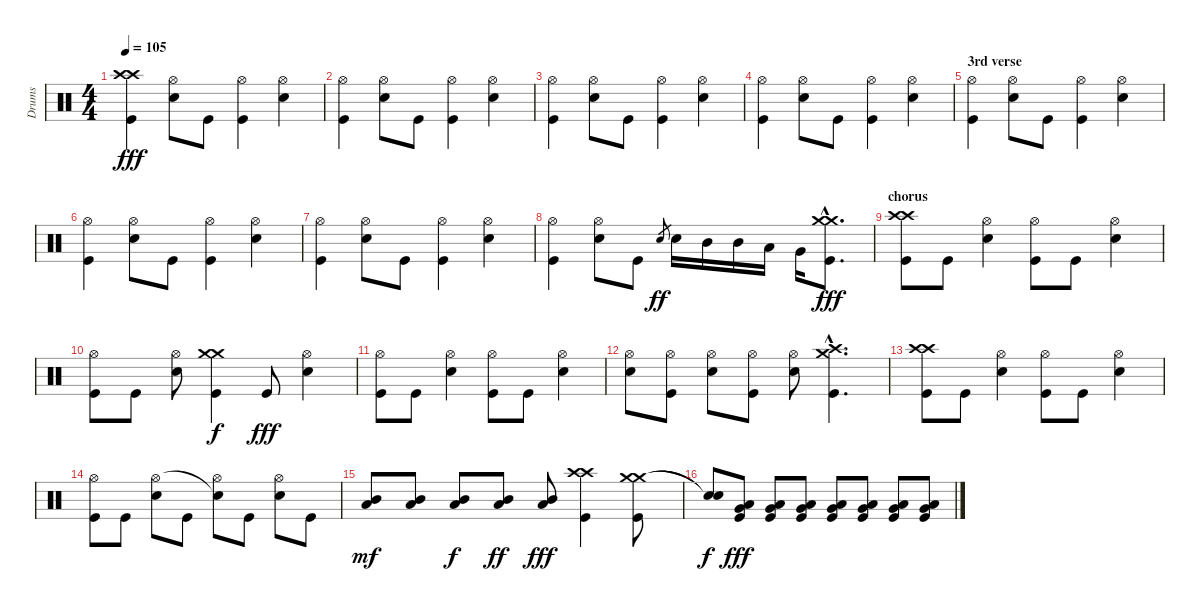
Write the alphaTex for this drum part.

\track ("Drums" "Drums") {instrument percussion}
\staff {score}
\articulation defaults
\ts (4 4)
\tempo 105
\clef neutral
\ks c
("Crash high (hit)" "Crash high (hit)" "Kick (hit)").4{dy fff} ("Electric Snare (hit)" "Hi-Hat (open)").8 "Kick (hit)".8 ("Hi-Hat (open)" "Kick (hit)").4 ("Electric Snare (hit)" "Hi-Hat (open)").4 |
("Hi-Hat (open)" "Kick (hit)").4 ("Electric Snare (hit)" "Hi-Hat (open)").8 "Kick (hit)".8 ("Hi-Hat (open)" "Kick (hit)").4 ("Electric Snare (hit)" "Hi-Hat (open)").4 |
("Hi-Hat (open)" "Kick (hit)").4 ("Electric Snare (hit)" "Hi-Hat (open)").8 "Kick (hit)".8 ("Hi-Hat (open)" "Kick (hit)").4 ("Electric Snare (hit)" "Hi-Hat (open)").4 |
("Hi-Hat (open)" "Kick (hit)").4 ("Electric Snare (hit)" "Hi-Hat (open)").8 "Kick (hit)".8 ("Hi-Hat (open)" "Kick (hit)").4 ("Electric Snare (hit)" "Hi-Hat (open)").4 |
\section ("" "3rd verse")
("Hi-Hat (open)" "Kick (hit)").4 ("Electric Snare (hit)" "Hi-Hat (open)").8 "Kick (hit)".8 ("Hi-Hat (open)" "Kick (hit)").4 ("Electric Snare (hit)" "Hi-Hat (open)").4 |
("Hi-Hat (open)" "Kick (hit)").4 ("Electric Snare (hit)" "Hi-Hat (open)").8 "Kick (hit)".8 ("Hi-Hat (open)" "Kick (hit)").4 ("Electric Snare (hit)" "Hi-Hat (open)").4 |
("Hi-Hat (open)" "Kick (hit)").4 ("Electric Snare (hit)" "Hi-Hat (open)").8 "Kick (hit)".8 ("Hi-Hat (open)" "Kick (hit)").4 ("Electric Snare (hit)" "Hi-Hat (open)").4 |
("Hi-Hat (open)" "Kick (hit)").4 ("Electric Snare (hit)" "Hi-Hat (open)").8 "Kick (hit)".8 "Electric Snare (hit)".8{gr dy ff} "Electric Snare (hit)".16 "Mid Tom (hit)".16 "Mid Tom (hit)".16 "Low Tom (hit)".16 "Very Low Tom (hit)".16 ("Crash medium (hit)"{hac} "Crash medium (hit)"{hac} "Kick (hit)"{hac}).8{d dy fff} |
\section ("" "chorus")
("Crash high (hit)" "Crash high (hit)" "Kick (hit)").8 "Kick (hit)".8 ("Electric Snare (hit)" "Hi-Hat (open)").4 ("Hi-Hat (open)" "Kick (hit)").8 "Kick (hit)".8 ("Electric Snare (hit)" "Hi-Hat (open)").4 |
("Hi-Hat (open)" "Kick (hit)").8 "Kick (hit)".8 ("Electric Snare (hit)" "Hi-Hat (open)").8 ("Crash medium (hit)" "Crash medium (hit)" "Kick (hit)").4{dy f} "Kick (hit)".8{dy fff} ("Electric Snare (hit)" "Hi-Hat (open)").4 |
("Hi-Hat (open)" "Kick (hit)").8 "Kick (hit)".8 ("Electric Snare (hit)" "Hi-Hat (open)").4 ("Hi-Hat (open)" "Kick (hit)").8 "Kick (hit)".8 ("Electric Snare (hit)" "Hi-Hat (open)").4 |
("Electric Snare (hit)" "Hi-Hat (open)").8 ("Hi-Hat (open)" "Kick (hit)").8 ("Electric Snare (hit)" "Hi-Hat (open)").8 ("Hi-Hat (open)" "Kick (hit)").8 ("Electric Snare (hit)" "Hi-Hat (open)").8 ("Crash high (hit)"{hac} "Crash medium (hit)"{hac} "Kick (hit)"{hac}).4{d} |
("Crash high (hit)" "Crash high (hit)" "Kick (hit)").8 "Kick (hit)".8 ("Electric Snare (hit)" "Hi-Hat (open)").4 ("Hi-Hat (open)" "Kick (hit)").8 "Kick (hit)".8 ("Electric Snare (hit)" "Hi-Hat (open)").4 |
("Hi-Hat (open)" "Kick (hit)").8 "Kick (hit)".8 ("Electric Snare (hit)" "Hi-Hat (open)").8 "Kick (hit)".8 ("Hi-Hat (open)" "Snare (hit)"{t}).8 "Kick (hit)".8 ("Electric Snare (hit)" "Hi-Hat (open)").8 "Kick (hit)".8 |
("Mid Tom (hit)" "Low Tom (hit)").8{dy mf} ("Mid Tom (hit)" "Low Tom (hit)").8 ("Mid Tom (hit)" "Low Tom (hit)").8{dy f} ("Mid Tom (hit)" "Low Tom (hit)").8{dy ff} ("Mid Tom (hit)" "Low Tom (hit)").8{dy fff} ("Crash high (hit)" "Crash high (hit)" "Kick (hit)").4 ("Crash medium (hit)" "Crash medium (hit)" "Kick (hit)").8 |
("Snare (hit)"{t} "Snare (hit)"{t}).8{dy f} ("Low Tom (hit)" "Very Low Tom (hit)" "Kick (hit)").8{dy fff} ("Low Tom (hit)" "Very Low Tom (hit)" "Kick (hit)").8 ("Low Tom (hit)" "Very Low Tom (hit)" "Kick (hit)").8 ("Low Tom (hit)" "Very Low Tom (hit)" "Kick (hit)").8 ("Low Tom (hit)" "Very Low Tom (hit)" "Kick (hit)").8 ("Low Tom (hit)" "Very Low Tom (hit)" "Kick (hit)").8 ("Low Tom (hit)" "Very Low Tom (hit)" "Kick (hit)").8
